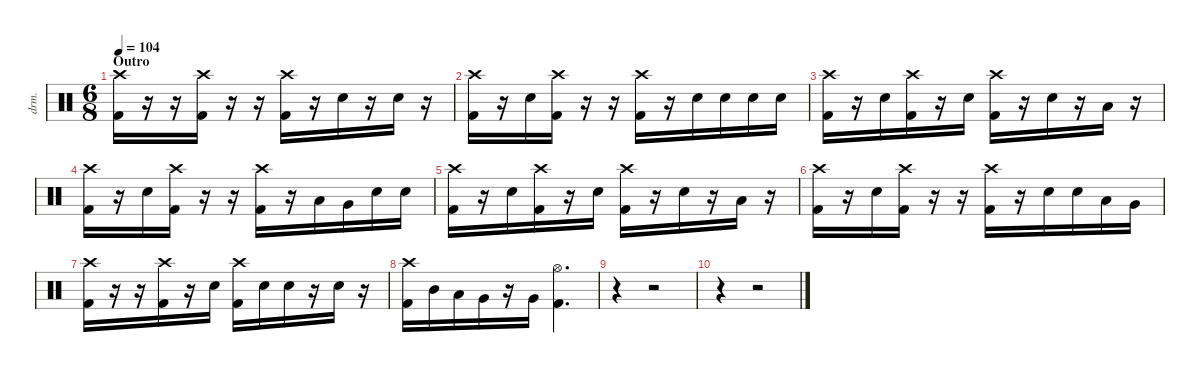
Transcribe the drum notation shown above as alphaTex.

\defaultSystemsLayout 4
\hideDynamics
\bracketExtendMode nobrackets
\otherSystemsTrackNameOrientation horizontal
\track ("Gene Hoglan" "drm.") {instrument percussion}
\staff {score}
\articulation defaults
\ts (6 8)
\section ("" "Outro")
\tempo 104
\clef neutral
\ks c
("Crash high (hit)" "Kick (hit) 2").16{dy f beam Down} r.16{beam Down} r.16{beam Down} ("Crash high (hit)" "Kick (hit) 2").16{beam Down} r.16{beam Down} r.16{beam Down} ("Crash high (hit)" "Kick (hit) 2").16{beam Down} r.16{beam Down} "Snare (hit) 2".16{beam Down} r.16{beam Down} "Snare (hit) 2".16{beam Down} r.16{beam Down} |
("Crash high (hit)" "Kick (hit) 2").16{beam Down} r.16{beam Down} "Snare (hit) 2".16{beam Down} ("Crash high (hit)" "Kick (hit) 2").16{beam Down} r.16{beam Down} r.16{beam Down} ("Crash high (hit)" "Kick (hit) 2").16{beam Down} r.16{beam Down} "Snare (hit) 2".16{beam Down} "Snare (hit) 2".16{beam Down} "Snare (hit) 2".16{beam Down} "Snare (hit) 2".16{beam Down} |
("Crash high (hit)" "Kick (hit) 2").16{beam Down} r.16{beam Down} "Snare (hit) 2".16{beam Down} ("Crash high (hit)" "Kick (hit) 2").16{beam Down} r.16{beam Down} "Snare (hit) 2".16{beam Down} ("Crash high (hit)" "Kick (hit) 2").16{beam Down} r.16{beam Down} "Snare (hit) 2".16{beam Down} r.16{beam Down} "Low Tom (hit)".16{beam Down} r.16{beam Down} |
("Crash high (hit)" "Kick (hit) 2").16{beam Down} r.16{beam Down} "Snare (hit) 2".16{beam Down} ("Crash high (hit)" "Kick (hit) 2").16{beam Down} r.16{beam Down} r.16{beam Down} ("Crash high (hit)" "Kick (hit) 2").16{beam Down} r.16{beam Down} "Low Tom (hit)".16{beam Down} "Very Low Tom (hit)".16{beam Down} "Snare (hit) 2".16{beam Down} "Snare (hit) 2".16{beam Down} |
("Crash high (hit)" "Kick (hit) 2").16{beam Down} r.16{beam Down} "Snare (hit) 2".16{beam Down} ("Crash high (hit)" "Kick (hit) 2").16{beam Down} r.16{beam Down} "Snare (hit) 2".16{beam Down} ("Crash high (hit)" "Kick (hit) 2").16{beam Down} r.16{beam Down} "Snare (hit) 2".16{beam Down} r.16{beam Down} "Low Tom (hit)".16{beam Down} r.16{beam Down} |
("Crash high (hit)" "Kick (hit) 2").16{beam Down} r.16{beam Down} "Snare (hit) 2".16{beam Down} ("Crash high (hit)" "Kick (hit) 2").16{beam Down} r.16{beam Down} r.16{beam Down} ("Crash high (hit)" "Kick (hit) 2").16{beam Down} r.16{beam Down} "Snare (hit) 2".16{beam Down} "Snare (hit) 2".16{beam Down} "Low Tom (hit)".16{beam Down} "Very Low Tom (hit)".16{beam Down} |
("Crash high (hit)" "Kick (hit) 2").16{beam Down} r.16{beam Down} r.16{beam Down} ("Crash high (hit)" "Kick (hit) 2").16{beam Down} r.16{beam Down} "Snare (hit) 2".16{beam Down} ("Crash high (hit)" "Kick (hit) 2").16{beam Down} "Snare (hit) 2".16{beam Down} "Snare (hit) 2".16{beam Down} r.16{beam Down} "Snare (hit) 2".16{beam Down} r.16{beam Down} |
("Crash high (hit)" "Kick (hit) 2").16{beam Down} "Mid Tom (hit)".16{beam Down} "Low Tom (hit)".16{beam Down} "Very Low Tom (hit)".16{beam Down} r.16{beam Down} "Very Low Tom (hit)".16{beam Down} ("Hi-Hat (open)" "Kick (hit) 2").4{d beam Down} |
r.4{beam Down} r.2{beam Down} |
r.4{beam Down} r.2{beam Down}
